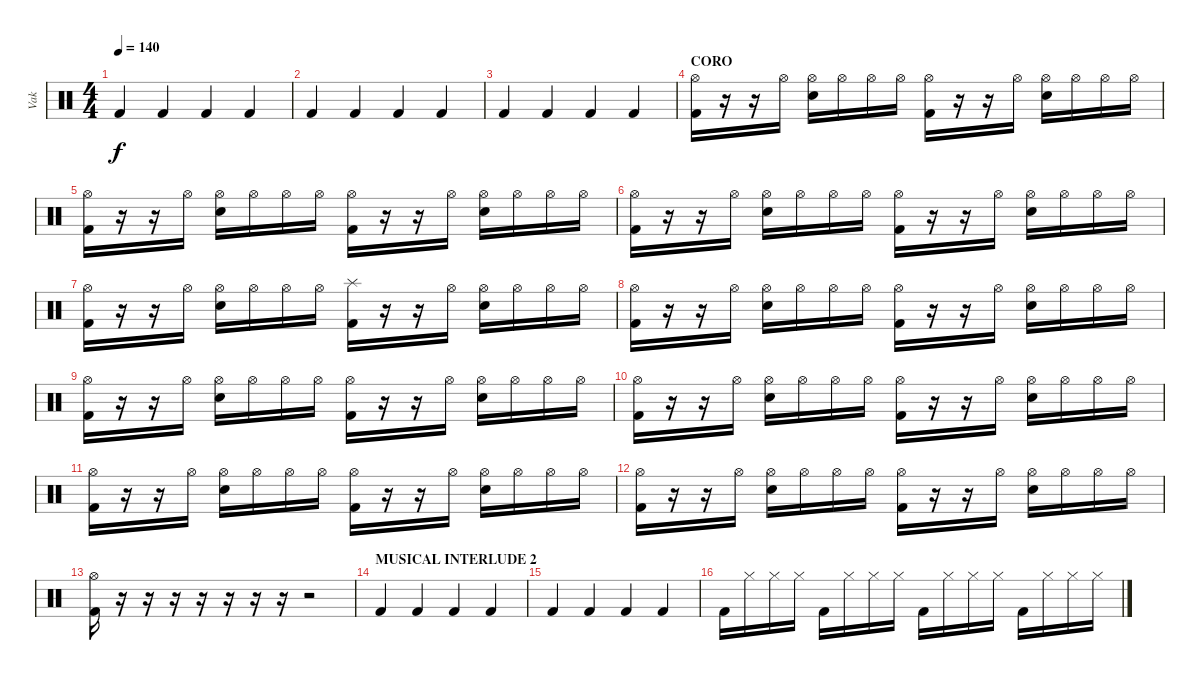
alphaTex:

\track ("Vak" "Vak") {instrument percussion}
\staff {score}
\articulation defaults
\ts (4 4)
\tempo 140
\clef neutral
\ks c "Kick (hit) 2".4{dy f} "Kick (hit) 2".4 "Kick (hit) 2".4 "Kick (hit) 2".4
|
"Kick (hit) 2".4 "Kick (hit) 2".4 "Kick (hit) 2".4 "Kick (hit) 2".4 |
"Kick (hit) 2".4 "Kick (hit) 2".4 "Kick (hit) 2".4 "Kick (hit) 2".4 |
\section ("" "CORO")
("Hi-Hat (open)" "Kick (hit) 2").16 r.16 r.16 "Hi-Hat (open)".16 ("Hi-Hat (open)" "Snare (hit) 2").16 "Hi-Hat (open)".16 "Hi-Hat (open)".16 "Hi-Hat (open)".16 ("Hi-Hat (open)" "Kick (hit) 2").16 r.16 r.16 "Hi-Hat (open)".16 ("Hi-Hat (open)" "Snare (hit) 2").16 "Hi-Hat (open)".16 "Hi-Hat (open)".16 "Hi-Hat (open)".16 |
("Hi-Hat (open)" "Kick (hit) 2").16 r.16 r.16 "Hi-Hat (open)".16 ("Hi-Hat (open)" "Snare (hit) 2").16 "Hi-Hat (open)".16 "Hi-Hat (open)".16 "Hi-Hat (open)".16 ("Hi-Hat (open)" "Kick (hit) 2").16 r.16 r.16 "Hi-Hat (open)".16 ("Hi-Hat (open)" "Snare (hit) 2").16 "Hi-Hat (open)".16 "Hi-Hat (open)".16 "Hi-Hat (open)".16 |
("Hi-Hat (open)" "Kick (hit) 2").16 r.16 r.16 "Hi-Hat (open)".16 ("Hi-Hat (open)" "Snare (hit) 2").16 "Hi-Hat (open)".16 "Hi-Hat (open)".16 "Hi-Hat (open)".16 ("Hi-Hat (open)" "Kick (hit) 2").16 r.16 r.16 "Hi-Hat (open)".16 ("Hi-Hat (open)" "Snare (hit) 2").16 "Hi-Hat (open)".16 "Hi-Hat (open)".16 "Hi-Hat (open)".16 |
("Hi-Hat (open)" "Kick (hit) 2").16 r.16 r.16 "Hi-Hat (open)".16 ("Hi-Hat (open)" "Snare (hit) 2").16 "Hi-Hat (open)".16 "Hi-Hat (open)".16 "Hi-Hat (open)".16 ("Splash (hit)" "Kick (hit) 2").16 r.16 r.16 "Hi-Hat (open)".16 ("Hi-Hat (open)" "Snare (hit) 2").16 "Hi-Hat (open)".16 "Hi-Hat (open)".16 "Hi-Hat (open)".16 |
("Hi-Hat (open)" "Kick (hit) 2").16 r.16 r.16 "Hi-Hat (open)".16 ("Hi-Hat (open)" "Snare (hit) 2").16 "Hi-Hat (open)".16 "Hi-Hat (open)".16 "Hi-Hat (open)".16 ("Hi-Hat (open)" "Kick (hit) 2").16 r.16 r.16 "Hi-Hat (open)".16 ("Hi-Hat (open)" "Snare (hit) 2").16 "Hi-Hat (open)".16 "Hi-Hat (open)".16 "Hi-Hat (open)".16 |
("Hi-Hat (open)" "Kick (hit) 2").16 r.16 r.16 "Hi-Hat (open)".16 ("Hi-Hat (open)" "Snare (hit) 2").16 "Hi-Hat (open)".16 "Hi-Hat (open)".16 "Hi-Hat (open)".16 ("Hi-Hat (open)" "Kick (hit) 2").16 r.16 r.16 "Hi-Hat (open)".16 ("Hi-Hat (open)" "Snare (hit) 2").16 "Hi-Hat (open)".16 "Hi-Hat (open)".16 "Hi-Hat (open)".16 |
("Hi-Hat (open)" "Kick (hit) 2").16 r.16 r.16 "Hi-Hat (open)".16 ("Hi-Hat (open)" "Snare (hit) 2").16 "Hi-Hat (open)".16 "Hi-Hat (open)".16 "Hi-Hat (open)".16 ("Hi-Hat (open)" "Kick (hit) 2").16 r.16 r.16 "Hi-Hat (open)".16 ("Hi-Hat (open)" "Snare (hit) 2").16 "Hi-Hat (open)".16 "Hi-Hat (open)".16 "Hi-Hat (open)".16 |
("Hi-Hat (open)" "Kick (hit) 2").16 r.16 r.16 "Hi-Hat (open)".16 ("Hi-Hat (open)" "Snare (hit) 2").16 "Hi-Hat (open)".16 "Hi-Hat (open)".16 "Hi-Hat (open)".16 ("Hi-Hat (open)" "Kick (hit) 2").16 r.16 r.16 "Hi-Hat (open)".16 ("Hi-Hat (open)" "Snare (hit) 2").16 "Hi-Hat (open)".16 "Hi-Hat (open)".16 "Hi-Hat (open)".16 |
("Hi-Hat (open)" "Kick (hit) 2").16 r.16 r.16 "Hi-Hat (open)".16 ("Hi-Hat (open)" "Snare (hit) 2").16 "Hi-Hat (open)".16 "Hi-Hat (open)".16 "Hi-Hat (open)".16 ("Hi-Hat (open)" "Kick (hit) 2").16 r.16 r.16 "Hi-Hat (open)".16 ("Hi-Hat (open)" "Snare (hit) 2").16 "Hi-Hat (open)".16 "Hi-Hat (open)".16 "Hi-Hat (open)".16 |
("Hi-Hat (open)" "Kick (hit) 2").16 r.16 r.16 r.16 r.16 r.16 r.16 r.16 r.2 |
\section ("" "MUSICAL INTERLUDE 2")
"Kick (hit) 2".4 "Kick (hit) 2".4 "Kick (hit) 2".4 "Kick (hit) 2".4 |
"Kick (hit) 2".4 "Kick (hit) 2".4 "Kick (hit) 2".4 "Kick (hit) 2".4 |
"Kick (hit) 2".16 "Hi-Hat (closed)".16 "Hi-Hat (closed)".16 "Hi-Hat (closed)".16 "Kick (hit) 2".16 "Hi-Hat (closed)".16 "Hi-Hat (closed)".16 "Hi-Hat (closed)".16 "Kick (hit) 2".16 "Hi-Hat (closed)".16 "Hi-Hat (closed)".16 "Hi-Hat (closed)".16 "Kick (hit) 2".16 "Hi-Hat (closed)".16 "Hi-Hat (closed)".16 "Hi-Hat (closed)".16
